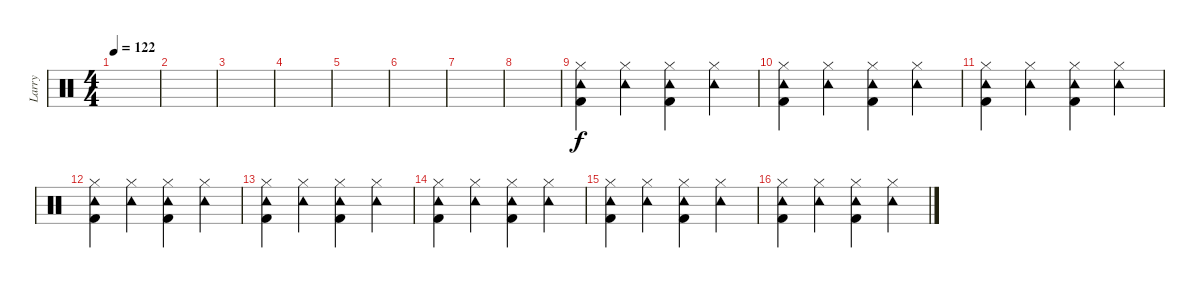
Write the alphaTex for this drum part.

\track ("Larry" "Larry") {instrument percussion}
\staff {score}
\articulation defaults
\ts (4 4)
\tempo 122
\clef neutral
\ks c
|
|
|
|
|
|
|
|
("Hi-Hat (closed)" "Tambourine (hit)" "Kick (hit) 2").4 ("Hi-Hat (closed)" "Tambourine (hit)").4 ("Hi-Hat (closed)" "Tambourine (hit)" "Kick (hit) 2").4 ("Hi-Hat (closed)" "Tambourine (hit)").4 |
("Hi-Hat (closed)" "Tambourine (hit)" "Kick (hit) 2").4 ("Hi-Hat (closed)" "Tambourine (hit)").4 ("Hi-Hat (closed)" "Tambourine (hit)" "Kick (hit) 2").4 ("Hi-Hat (closed)" "Tambourine (hit)").4 |
("Hi-Hat (closed)" "Tambourine (hit)" "Kick (hit) 2").4 ("Hi-Hat (closed)" "Tambourine (hit)").4 ("Hi-Hat (closed)" "Tambourine (hit)" "Kick (hit) 2").4 ("Hi-Hat (closed)" "Tambourine (hit)").4 |
("Hi-Hat (closed)" "Tambourine (hit)" "Kick (hit) 2").4 ("Hi-Hat (closed)" "Tambourine (hit)").4 ("Hi-Hat (closed)" "Tambourine (hit)" "Kick (hit) 2").4 ("Hi-Hat (closed)" "Tambourine (hit)").4 |
("Hi-Hat (closed)" "Tambourine (hit)" "Kick (hit) 2").4 ("Hi-Hat (closed)" "Tambourine (hit)").4 ("Hi-Hat (closed)" "Tambourine (hit)" "Kick (hit) 2").4 ("Hi-Hat (closed)" "Tambourine (hit)").4 |
("Hi-Hat (closed)" "Tambourine (hit)" "Kick (hit) 2").4 ("Hi-Hat (closed)" "Tambourine (hit)").4 ("Hi-Hat (closed)" "Tambourine (hit)" "Kick (hit) 2").4 ("Hi-Hat (closed)" "Tambourine (hit)").4 |
("Hi-Hat (closed)" "Tambourine (hit)" "Kick (hit) 2").4 ("Hi-Hat (closed)" "Tambourine (hit)").4 ("Hi-Hat (closed)" "Tambourine (hit)" "Kick (hit) 2").4 ("Hi-Hat (closed)" "Tambourine (hit)").4 |
("Hi-Hat (closed)" "Tambourine (hit)" "Kick (hit) 2").4 ("Hi-Hat (closed)" "Tambourine (hit)").4 ("Hi-Hat (closed)" "Tambourine (hit)" "Kick (hit) 2").4 ("Hi-Hat (closed)" "Tambourine (hit)").4
